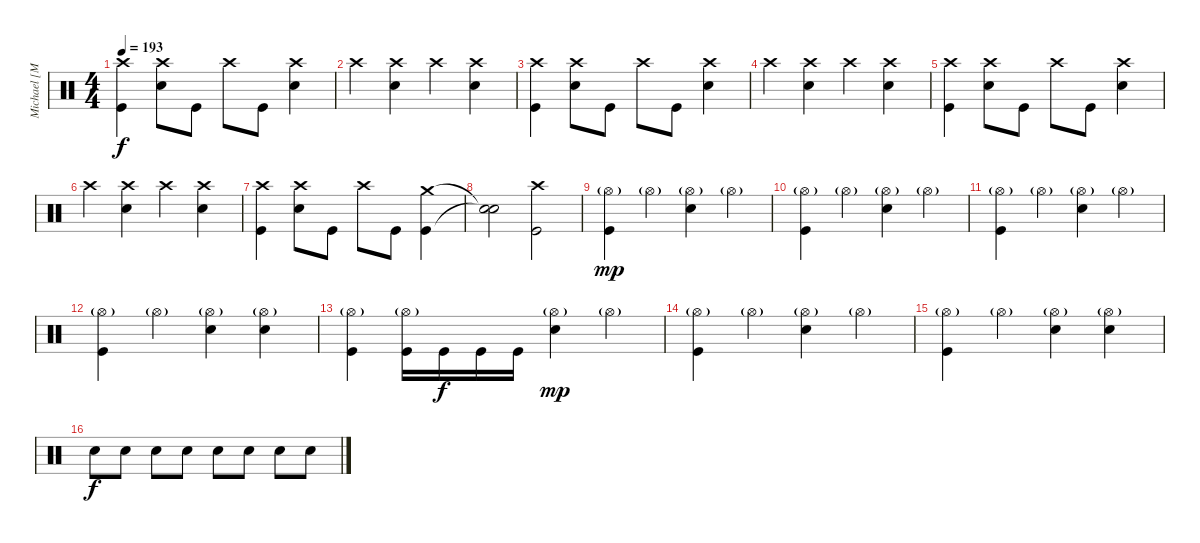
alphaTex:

\track ("Michael [Moose] Thomas" "Michael [M") {instrument percussion}
\staff {score}
\articulation defaults
\ts (4 4)
\tempo 193
\clef neutral
\ks c
("Crash high (hit)" "Kick (hit)").4{dy f} ("Crash high (hit)" "Snare (hit) 2").8 "Kick (hit)".8 "Crash high (hit)".8 "Kick (hit)".8 ("Crash high (hit)" "Snare (hit) 2").4 |
"Crash high (hit)".4 ("Crash high (hit)" "Snare (hit) 2").4 "Crash high (hit)".4 ("Crash high (hit)" "Snare (hit) 2").4 |
("Crash high (hit)" "Kick (hit)").4 ("Crash high (hit)" "Snare (hit) 2").8 "Kick (hit)".8 "Crash high (hit)".8 "Kick (hit)".8 ("Crash high (hit)" "Snare (hit) 2").4 |
"Crash high (hit)".4 ("Crash high (hit)" "Snare (hit) 2").4 "Crash high (hit)".4 ("Crash high (hit)" "Snare (hit) 2").4 |
("Crash high (hit)" "Kick (hit)").4 ("Crash high (hit)" "Snare (hit) 2").8 "Kick (hit)".8 "Crash high (hit)".8 "Kick (hit)".8 ("Crash high (hit)" "Snare (hit) 2").4 |
"Crash high (hit)".4 ("Crash high (hit)" "Snare (hit) 2").4 "Crash high (hit)".4 ("Crash high (hit)" "Snare (hit) 2").4 |
("Crash high (hit)" "Kick (hit)").4 ("Crash high (hit)" "Snare (hit) 2").8 "Kick (hit)".8 "Crash high (hit)".8 "Kick (hit)".8 ("Crash medium (hit)" "Kick (hit)").4 |
("Snare (hit)"{t} "Snare (hit)"{t}).2 ("Crash high (hit)" "Kick (hit)").2 |
("Hi-Hat (open)"{g} "Kick (hit)").4{dy mp} "Hi-Hat (open)"{g}.4 ("Hi-Hat (open)"{g} "Snare (hit) 2").4 "Hi-Hat (open)"{g}.4 |
("Hi-Hat (open)"{g} "Kick (hit)").4 "Hi-Hat (open)"{g}.4 ("Hi-Hat (open)"{g} "Snare (hit) 2").4 "Hi-Hat (open)"{g}.4 |
("Hi-Hat (open)"{g} "Kick (hit)").4 "Hi-Hat (open)"{g}.4 ("Hi-Hat (open)"{g} "Snare (hit) 2").4 "Hi-Hat (open)"{g}.4 |
("Hi-Hat (open)"{g} "Kick (hit)").4 "Hi-Hat (open)"{g}.4 ("Hi-Hat (open)"{g} "Snare (hit) 2").4 ("Hi-Hat (open)"{g} "Snare (hit) 2").4 |
("Hi-Hat (open)"{g} "Kick (hit)").4 ("Hi-Hat (open)"{g} "Kick (hit)").16 "Kick (hit)".16{dy f} "Kick (hit)".16 "Kick (hit)".16 ("Hi-Hat (open)"{g} "Snare (hit) 2").4{dy mp} "Hi-Hat (open)"{g}.4 |
("Hi-Hat (open)"{g} "Kick (hit)").4 "Hi-Hat (open)"{g}.4 ("Hi-Hat (open)"{g} "Snare (hit) 2").4 "Hi-Hat (open)"{g}.4 |
("Hi-Hat (open)"{g} "Kick (hit)").4 "Hi-Hat (open)"{g}.4 ("Hi-Hat (open)"{g} "Snare (hit) 2").4 ("Hi-Hat (open)"{g} "Snare (hit) 2").4 |
"Snare (hit) 2".8{dy f} "Snare (hit) 2".8 "Snare (hit) 2".8 "Snare (hit) 2".8 "Snare (hit) 2".8 "Snare (hit) 2".8 "Snare (hit) 2".8 "Snare (hit) 2".8
